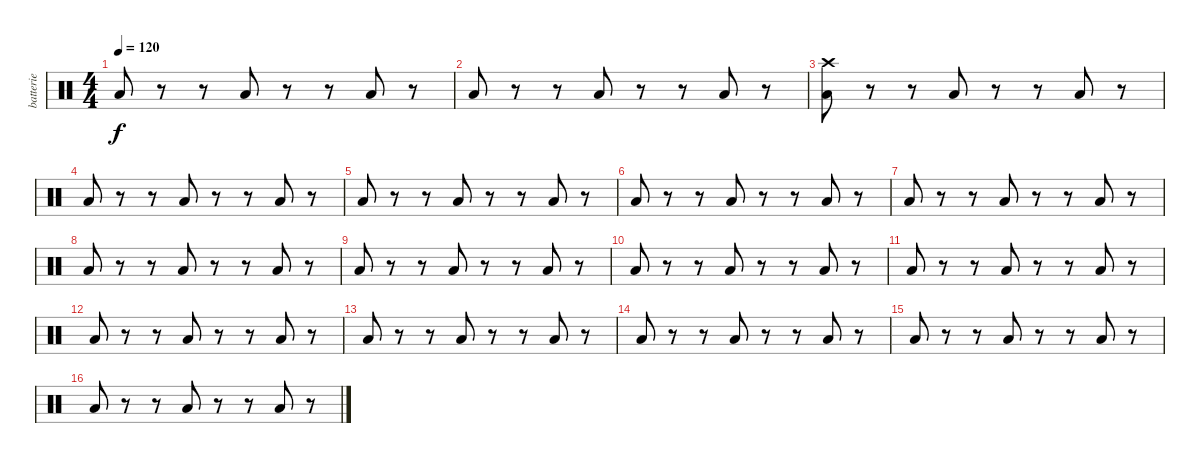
\track ("batterie" "batterie") {instrument percussion}
\staff {score}
\articulation defaults
\ts (4 4)
\tempo 120
\clef neutral
\ks c "Low Floor Tom (hit)".8{dy f}
r.8 r.8 "Low Floor Tom (hit)".8 r.8 r.8 "Low Floor Tom (hit)".8 r.8 |
"Low Floor Tom (hit)".8 r.8 r.8 "Low Floor Tom (hit)".8 r.8 r.8 "Low Floor Tom (hit)".8 r.8 |
("Crash high (hit)" "Low Floor Tom (hit)").8 r.8 r.8 "Low Floor Tom (hit)".8 r.8 r.8 "Low Floor Tom (hit)".8 r.8 |
"Low Floor Tom (hit)".8 r.8 r.8 "Low Floor Tom (hit)".8 r.8 r.8 "Low Floor Tom (hit)".8 r.8 |
"Low Floor Tom (hit)".8 r.8 r.8 "Low Floor Tom (hit)".8 r.8 r.8 "Low Floor Tom (hit)".8 r.8 |
"Low Floor Tom (hit)".8 r.8 r.8 "Low Floor Tom (hit)".8 r.8 r.8 "Low Floor Tom (hit)".8 r.8 |
"Low Floor Tom (hit)".8 r.8 r.8 "Low Floor Tom (hit)".8 r.8 r.8 "Low Floor Tom (hit)".8 r.8 |
"Low Floor Tom (hit)".8 r.8 r.8 "Low Floor Tom (hit)".8 r.8 r.8 "Low Floor Tom (hit)".8 r.8 |
"Low Floor Tom (hit)".8 r.8 r.8 "Low Floor Tom (hit)".8 r.8 r.8 "Low Floor Tom (hit)".8 r.8 |
"Low Floor Tom (hit)".8 r.8 r.8 "Low Floor Tom (hit)".8 r.8 r.8 "Low Floor Tom (hit)".8 r.8 |
"Low Floor Tom (hit)".8 r.8 r.8 "Low Floor Tom (hit)".8 r.8 r.8 "Low Floor Tom (hit)".8 r.8 |
"Low Floor Tom (hit)".8 r.8 r.8 "Low Floor Tom (hit)".8 r.8 r.8 "Low Floor Tom (hit)".8 r.8 |
"Low Floor Tom (hit)".8 r.8 r.8 "Low Floor Tom (hit)".8 r.8 r.8 "Low Floor Tom (hit)".8 r.8 |
"Low Floor Tom (hit)".8 r.8 r.8 "Low Floor Tom (hit)".8 r.8 r.8 "Low Floor Tom (hit)".8 r.8 |
"Low Floor Tom (hit)".8 r.8 r.8 "Low Floor Tom (hit)".8 r.8 r.8 "Low Floor Tom (hit)".8 r.8 |
"Low Floor Tom (hit)".8 r.8 r.8 "Low Floor Tom (hit)".8 r.8 r.8 "Low Floor Tom (hit)".8 r.8
